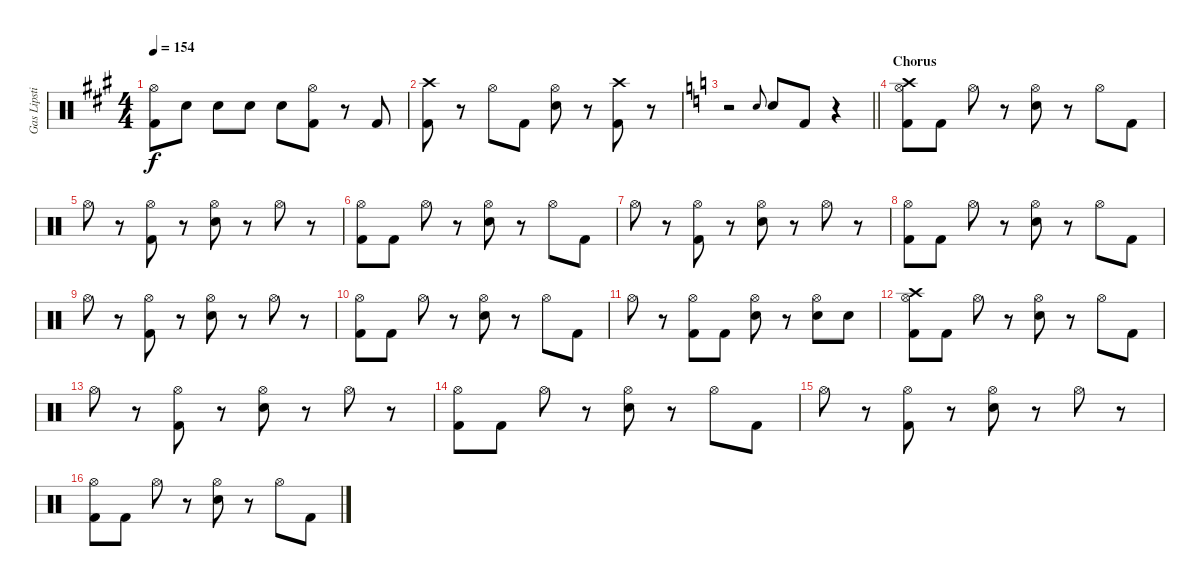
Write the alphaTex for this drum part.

\track ("Gas Lipstick (Drums)" "Gas Lipsti") {instrument percussion}
\staff {score}
\articulation defaults
\ts (4 4)
\tempo 154
\clef neutral
\ks a
("Hi-Hat (open)" "Kick (hit) 2").8{dy f} "Snare (hit) 2".8 "Snare (hit) 2".8 "Snare (hit) 2".8 "Snare (hit) 2".8 ("Hi-Hat (open)" "Kick (hit) 2").8 r.8 "Kick (hit) 2".8 |
("Crash high (hit)" "Kick (hit) 2").8 r.8 "Hi-Hat (open)".8 "Kick (hit) 2".8 ("Hi-Hat (open)" "Snare (hit) 2").8 r.8 ("Crash high (hit)" "Kick (hit) 2").8 r.8 |
\barLineRight lightlight
\ks c
r.2 "Snare (hit) 2".8{gr onbeat} "Snare (hit) 2".8 "Kick (hit) 2".8 r.4 |
\section ("" "Chorus")
("Crash high (hit)" "Hi-Hat (open)" "Kick (hit) 2").8 "Kick (hit) 2".8 "Hi-Hat (open)".8 r.8 ("Hi-Hat (open)" "Snare (hit) 2").8 r.8 "Hi-Hat (open)".8 "Kick (hit) 2".8 |
"Hi-Hat (open)".8 r.8 ("Hi-Hat (open)" "Kick (hit) 2").8 r.8 ("Hi-Hat (open)" "Snare (hit) 2").8 r.8 "Hi-Hat (open)".8 r.8 |
("Hi-Hat (open)" "Kick (hit) 2").8 "Kick (hit) 2".8 "Hi-Hat (open)".8 r.8 ("Hi-Hat (open)" "Snare (hit) 2").8 r.8 "Hi-Hat (open)".8 "Kick (hit) 2".8 |
"Hi-Hat (open)".8 r.8 ("Hi-Hat (open)" "Kick (hit) 2").8 r.8 ("Hi-Hat (open)" "Snare (hit) 2").8 r.8 "Hi-Hat (open)".8 r.8 |
("Hi-Hat (open)" "Kick (hit) 2").8 "Kick (hit) 2".8 "Hi-Hat (open)".8 r.8 ("Hi-Hat (open)" "Snare (hit) 2").8 r.8 "Hi-Hat (open)".8 "Kick (hit) 2".8 |
"Hi-Hat (open)".8 r.8 ("Hi-Hat (open)" "Kick (hit) 2").8 r.8 ("Hi-Hat (open)" "Snare (hit) 2").8 r.8 "Hi-Hat (open)".8 r.8 |
("Hi-Hat (open)" "Kick (hit) 2").8 "Kick (hit) 2".8 "Hi-Hat (open)".8 r.8 ("Hi-Hat (open)" "Snare (hit) 2").8 r.8 "Hi-Hat (open)".8 "Kick (hit) 2".8 |
"Hi-Hat (open)".8 r.8 ("Hi-Hat (open)" "Kick (hit) 2").8 "Kick (hit) 2".8 ("Hi-Hat (open)" "Snare (hit) 2").8 r.8 ("Hi-Hat (open)" "Snare (hit) 2").8 "Snare (hit) 2".8 |
("Crash high (hit)" "Hi-Hat (open)" "Kick (hit) 2").8 "Kick (hit) 2".8 "Hi-Hat (open)".8 r.8 ("Hi-Hat (open)" "Snare (hit) 2").8 r.8 "Hi-Hat (open)".8 "Kick (hit) 2".8 |
"Hi-Hat (open)".8 r.8 ("Hi-Hat (open)" "Kick (hit) 2").8 r.8 ("Hi-Hat (open)" "Snare (hit) 2").8 r.8 "Hi-Hat (open)".8 r.8 |
("Hi-Hat (open)" "Kick (hit) 2").8 "Kick (hit) 2".8 "Hi-Hat (open)".8 r.8 ("Hi-Hat (open)" "Snare (hit) 2").8 r.8 "Hi-Hat (open)".8 "Kick (hit) 2".8 |
"Hi-Hat (open)".8 r.8 ("Hi-Hat (open)" "Kick (hit) 2").8 r.8 ("Hi-Hat (open)" "Snare (hit) 2").8 r.8 "Hi-Hat (open)".8 r.8 |
("Hi-Hat (open)" "Kick (hit) 2").8 "Kick (hit) 2".8 "Hi-Hat (open)".8 r.8 ("Hi-Hat (open)" "Snare (hit) 2").8 r.8 "Hi-Hat (open)".8 "Kick (hit) 2".8
